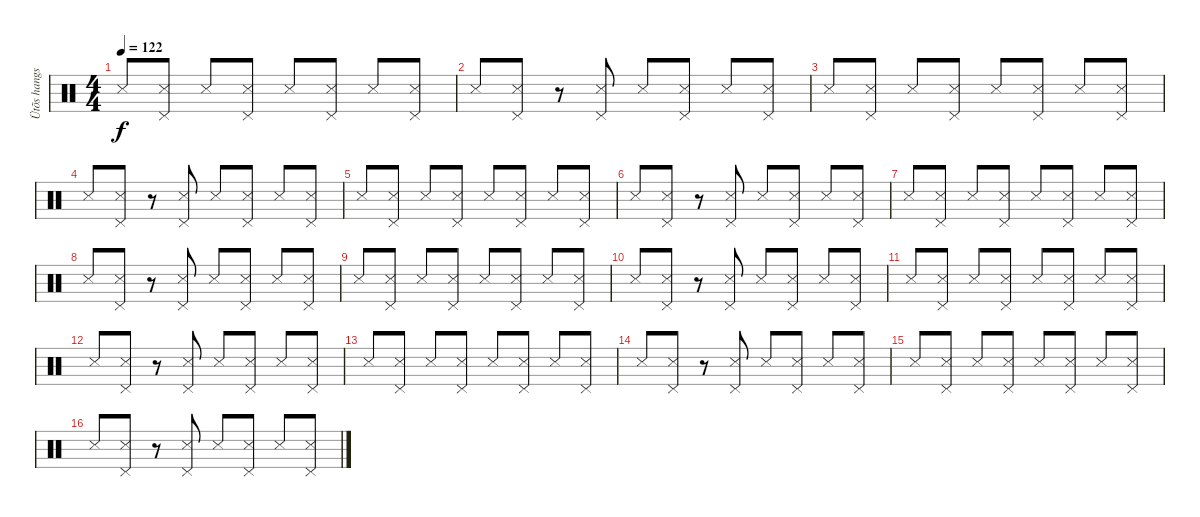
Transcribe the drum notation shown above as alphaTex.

\track ("Ütõs hangszer" "Ütõs hangs") {instrument percussion}
\staff {score}
\articulation defaults
\ts (4 4)
\tempo 122
\clef neutral
\ks c "Snare (side stick) 3".8{dy f}
("Snare (side stick) 3" "Pedal Hi-Hat (hit)").8 "Snare (side stick) 3".8 ("Snare (side stick) 3" "Pedal Hi-Hat (hit)").8 "Snare (side stick) 3".8 ("Snare (side stick) 3" "Pedal Hi-Hat (hit)").8 "Snare (side stick) 3".8 ("Snare (side stick) 3" "Pedal Hi-Hat (hit)").8 |
"Snare (side stick) 3".8 ("Snare (side stick) 3" "Pedal Hi-Hat (hit)").8 r.8 ("Snare (side stick) 3" "Pedal Hi-Hat (hit)").8 "Snare (side stick) 3".8 ("Snare (side stick) 3" "Pedal Hi-Hat (hit)").8 "Snare (side stick) 3".8 ("Snare (side stick) 3" "Pedal Hi-Hat (hit)").8 |
"Snare (side stick) 3".8 ("Snare (side stick) 3" "Pedal Hi-Hat (hit)").8 "Snare (side stick) 3".8 ("Snare (side stick) 3" "Pedal Hi-Hat (hit)").8 "Snare (side stick) 3".8 ("Snare (side stick) 3" "Pedal Hi-Hat (hit)").8 "Snare (side stick) 3".8 ("Snare (side stick) 3" "Pedal Hi-Hat (hit)").8 |
"Snare (side stick) 3".8 ("Snare (side stick) 3" "Pedal Hi-Hat (hit)").8 r.8 ("Snare (side stick) 3" "Pedal Hi-Hat (hit)").8 "Snare (side stick) 3".8 ("Snare (side stick) 3" "Pedal Hi-Hat (hit)").8 "Snare (side stick) 3".8 ("Snare (side stick) 3" "Pedal Hi-Hat (hit)").8 |
"Snare (side stick) 3".8 ("Snare (side stick) 3" "Pedal Hi-Hat (hit)").8 "Snare (side stick) 3".8 ("Snare (side stick) 3" "Pedal Hi-Hat (hit)").8 "Snare (side stick) 3".8 ("Snare (side stick) 3" "Pedal Hi-Hat (hit)").8 "Snare (side stick) 3".8 ("Snare (side stick) 3" "Pedal Hi-Hat (hit)").8 |
"Snare (side stick) 3".8 ("Snare (side stick) 3" "Pedal Hi-Hat (hit)").8 r.8 ("Snare (side stick) 3" "Pedal Hi-Hat (hit)").8 "Snare (side stick) 3".8 ("Snare (side stick) 3" "Pedal Hi-Hat (hit)").8 "Snare (side stick) 3".8 ("Snare (side stick) 3" "Pedal Hi-Hat (hit)").8 |
"Snare (side stick) 3".8 ("Snare (side stick) 3" "Pedal Hi-Hat (hit)").8 "Snare (side stick) 3".8 ("Snare (side stick) 3" "Pedal Hi-Hat (hit)").8 "Snare (side stick) 3".8 ("Snare (side stick) 3" "Pedal Hi-Hat (hit)").8 "Snare (side stick) 3".8 ("Snare (side stick) 3" "Pedal Hi-Hat (hit)").8 |
"Snare (side stick) 3".8 ("Snare (side stick) 3" "Pedal Hi-Hat (hit)").8 r.8 ("Snare (side stick) 3" "Pedal Hi-Hat (hit)").8 "Snare (side stick) 3".8 ("Snare (side stick) 3" "Pedal Hi-Hat (hit)").8 "Snare (side stick) 3".8 ("Snare (side stick) 3" "Pedal Hi-Hat (hit)").8 |
"Snare (side stick) 3".8 ("Snare (side stick) 3" "Pedal Hi-Hat (hit)").8 "Snare (side stick) 3".8 ("Snare (side stick) 3" "Pedal Hi-Hat (hit)").8 "Snare (side stick) 3".8 ("Snare (side stick) 3" "Pedal Hi-Hat (hit)").8 "Snare (side stick) 3".8 ("Snare (side stick) 3" "Pedal Hi-Hat (hit)").8 |
"Snare (side stick) 3".8 ("Snare (side stick) 3" "Pedal Hi-Hat (hit)").8 r.8 ("Snare (side stick) 3" "Pedal Hi-Hat (hit)").8 "Snare (side stick) 3".8 ("Snare (side stick) 3" "Pedal Hi-Hat (hit)").8 "Snare (side stick) 3".8 ("Snare (side stick) 3" "Pedal Hi-Hat (hit)").8 |
"Snare (side stick) 3".8 ("Snare (side stick) 3" "Pedal Hi-Hat (hit)").8 "Snare (side stick) 3".8 ("Snare (side stick) 3" "Pedal Hi-Hat (hit)").8 "Snare (side stick) 3".8 ("Snare (side stick) 3" "Pedal Hi-Hat (hit)").8 "Snare (side stick) 3".8 ("Snare (side stick) 3" "Pedal Hi-Hat (hit)").8 |
"Snare (side stick) 3".8 ("Snare (side stick) 3" "Pedal Hi-Hat (hit)").8 r.8 ("Snare (side stick) 3" "Pedal Hi-Hat (hit)").8 "Snare (side stick) 3".8 ("Snare (side stick) 3" "Pedal Hi-Hat (hit)").8 "Snare (side stick) 3".8 ("Snare (side stick) 3" "Pedal Hi-Hat (hit)").8 |
"Snare (side stick) 3".8 ("Snare (side stick) 3" "Pedal Hi-Hat (hit)").8 "Snare (side stick) 3".8 ("Snare (side stick) 3" "Pedal Hi-Hat (hit)").8 "Snare (side stick) 3".8 ("Snare (side stick) 3" "Pedal Hi-Hat (hit)").8 "Snare (side stick) 3".8 ("Snare (side stick) 3" "Pedal Hi-Hat (hit)").8 |
"Snare (side stick) 3".8 ("Snare (side stick) 3" "Pedal Hi-Hat (hit)").8 r.8 ("Snare (side stick) 3" "Pedal Hi-Hat (hit)").8 "Snare (side stick) 3".8 ("Snare (side stick) 3" "Pedal Hi-Hat (hit)").8 "Snare (side stick) 3".8 ("Snare (side stick) 3" "Pedal Hi-Hat (hit)").8 |
"Snare (side stick) 3".8 ("Snare (side stick) 3" "Pedal Hi-Hat (hit)").8 "Snare (side stick) 3".8 ("Snare (side stick) 3" "Pedal Hi-Hat (hit)").8 "Snare (side stick) 3".8 ("Snare (side stick) 3" "Pedal Hi-Hat (hit)").8 "Snare (side stick) 3".8 ("Snare (side stick) 3" "Pedal Hi-Hat (hit)").8 |
"Snare (side stick) 3".8 ("Snare (side stick) 3" "Pedal Hi-Hat (hit)").8 r.8 ("Snare (side stick) 3" "Pedal Hi-Hat (hit)").8 "Snare (side stick) 3".8 ("Snare (side stick) 3" "Pedal Hi-Hat (hit)").8 "Snare (side stick) 3".8 ("Snare (side stick) 3" "Pedal Hi-Hat (hit)").8
